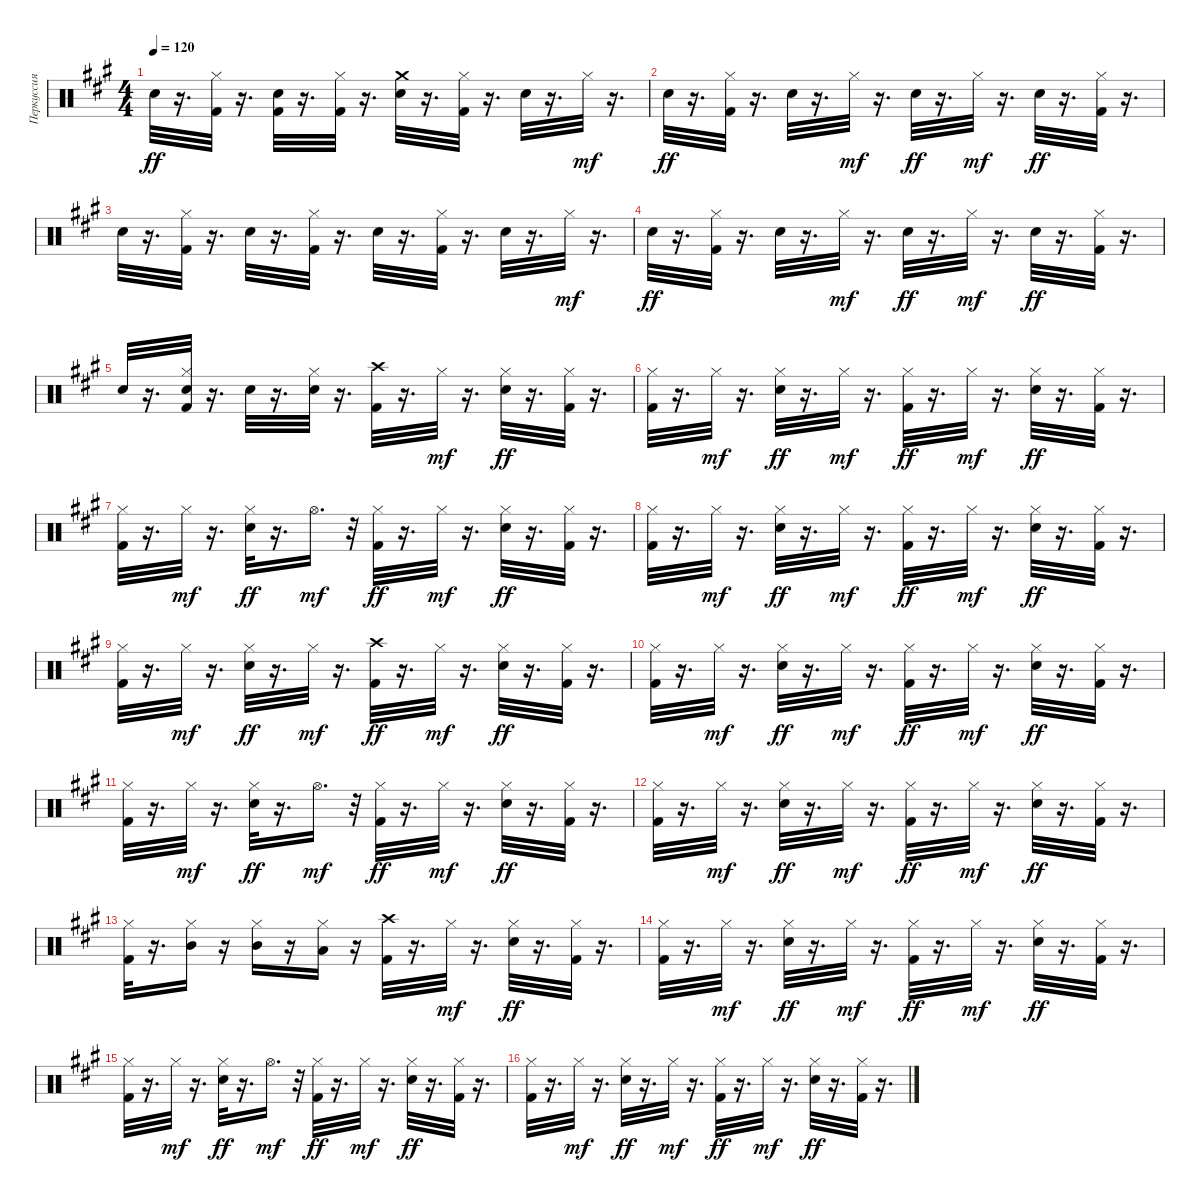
\track ("Перкуссия" "Перкуссия") {instrument percussion}
\staff {score}
\articulation defaults
\ts (4 4)
\tempo 120
\clef neutral
\ks f#minor "Snare (hit) 2".32{dy ff}
r.16{d} ("Hi-Hat (closed)" "Kick (hit) 2").32 r.16{d} ("Kick (hit) 2" "Snare (hit) 2").32 r.16{d} ("Hi-Hat (closed)" "Kick (hit) 2").32 r.16{d} ("Crash medium (hit)" "Snare (hit) 2").32 r.16{d} ("Hi-Hat (closed)" "Kick (hit) 2").32 r.16{d} "Snare (hit) 2".32 r.16{d} "Hi-Hat (closed)".32{dy mf} r.16{d} |
"Snare (hit) 2".32{dy ff} r.16{d} ("Hi-Hat (closed)" "Kick (hit) 2").32 r.16{d} "Snare (hit) 2".32 r.16{d} "Hi-Hat (closed)".32{dy mf} r.16{d} "Snare (hit) 2".32{dy ff} r.16{d} "Hi-Hat (closed)".32{dy mf} r.16{d} "Snare (hit) 2".32{dy ff} r.16{d} ("Hi-Hat (closed)" "Kick (hit) 2").32 r.16{d} |
"Snare (hit) 2".32 r.16{d} ("Hi-Hat (closed)" "Kick (hit) 2").32 r.16{d} "Snare (hit) 2".32 r.16{d} ("Hi-Hat (closed)" "Kick (hit) 2").32 r.16{d} "Snare (hit) 2".32 r.16{d} ("Hi-Hat (closed)" "Kick (hit) 2").32 r.16{d} "Snare (hit) 2".32 r.16{d} "Hi-Hat (closed)".32{dy mf} r.16{d} |
"Snare (hit) 2".32{dy ff} r.16{d} ("Hi-Hat (closed)" "Kick (hit) 2").32 r.16{d} "Snare (hit) 2".32 r.16{d} "Hi-Hat (closed)".32{dy mf} r.16{d} "Snare (hit) 2".32{dy ff} r.16{d} "Hi-Hat (closed)".32{dy mf} r.16{d} "Snare (hit) 2".32{dy ff} r.16{d} ("Hi-Hat (closed)" "Kick (hit) 2").32 r.16{d} |
"Snare (hit) 2".32 r.16{d} ("Hi-Hat (closed)" "Snare (hit) 2" "Kick (hit) 2").32 r.16{d} "Snare (hit) 2".32 r.16{d} ("Hi-Hat (closed)" "Snare (hit) 2").32 r.16{d} ("Crash high (hit)" "Kick (hit) 2").32 r.16{d} "Hi-Hat (closed)".32{dy mf} r.16{d} ("Hi-Hat (closed)" "Snare (hit) 2").32{dy ff} r.16{d} ("Hi-Hat (closed)" "Kick (hit) 2").32 r.16{d} |
("Hi-Hat (closed)" "Kick (hit) 2").32 r.16{d} "Hi-Hat (closed)".32{dy mf} r.16{d} ("Hi-Hat (closed)" "Snare (hit) 2").32{dy ff} r.16{d} "Hi-Hat (closed)".32{dy mf} r.16{d} ("Hi-Hat (closed)" "Kick (hit) 2").32{dy ff} r.16{d} "Hi-Hat (closed)".32{dy mf} r.16{d} ("Hi-Hat (closed)" "Snare (hit) 2").32{dy ff} r.16{d} ("Hi-Hat (closed)" "Kick (hit) 2").32 r.16{d} |
("Hi-Hat (closed)" "Kick (hit) 2").32 r.16{d} "Hi-Hat (closed)".32{dy mf} r.16{d} ("Hi-Hat (closed)" "Snare (hit) 2").32{dy ff} r.16{d} "Hi-Hat (open)".16{d dy mf} r.32 ("Hi-Hat (closed)" "Kick (hit) 2").32{dy ff} r.16{d} "Hi-Hat (closed)".32{dy mf} r.16{d} ("Hi-Hat (closed)" "Snare (hit) 2").32{dy ff} r.16{d} ("Hi-Hat (closed)" "Kick (hit) 2").32 r.16{d} |
("Hi-Hat (closed)" "Kick (hit) 2").32 r.16{d} "Hi-Hat (closed)".32{dy mf} r.16{d} ("Hi-Hat (closed)" "Snare (hit) 2").32{dy ff} r.16{d} "Hi-Hat (closed)".32{dy mf} r.16{d} ("Hi-Hat (closed)" "Kick (hit) 2").32{dy ff} r.16{d} "Hi-Hat (closed)".32{dy mf} r.16{d} ("Hi-Hat (closed)" "Snare (hit) 2").32{dy ff} r.16{d} ("Hi-Hat (closed)" "Kick (hit) 2").32 r.16{d} |
("Hi-Hat (closed)" "Kick (hit) 2").32 r.16{d} "Hi-Hat (closed)".32{dy mf} r.16{d} ("Hi-Hat (closed)" "Snare (hit) 2").32{dy ff} r.16{d} "Hi-Hat (closed)".32{dy mf} r.16{d} ("Crash high (hit)" "Kick (hit) 2").32{dy ff} r.16{d} "Hi-Hat (closed)".32{dy mf} r.16{d} ("Hi-Hat (closed)" "Snare (hit) 2").32{dy ff} r.16{d} ("Hi-Hat (closed)" "Kick (hit) 2").32 r.16{d} |
("Hi-Hat (closed)" "Kick (hit) 2").32 r.16{d} "Hi-Hat (closed)".32{dy mf} r.16{d} ("Hi-Hat (closed)" "Snare (hit) 2").32{dy ff} r.16{d} "Hi-Hat (closed)".32{dy mf} r.16{d} ("Hi-Hat (closed)" "Kick (hit) 2").32{dy ff} r.16{d} "Hi-Hat (closed)".32{dy mf} r.16{d} ("Hi-Hat (closed)" "Snare (hit) 2").32{dy ff} r.16{d} ("Hi-Hat (closed)" "Kick (hit) 2").32 r.16{d} |
("Hi-Hat (closed)" "Kick (hit) 2").32 r.16{d} "Hi-Hat (closed)".32{dy mf} r.16{d} ("Hi-Hat (closed)" "Snare (hit) 2").32{dy ff} r.16{d} "Hi-Hat (open)".16{d dy mf} r.32 ("Hi-Hat (closed)" "Kick (hit) 2").32{dy ff} r.16{d} "Hi-Hat (closed)".32{dy mf} r.16{d} ("Hi-Hat (closed)" "Snare (hit) 2").32{dy ff} r.16{d} ("Hi-Hat (closed)" "Kick (hit) 2").32 r.16{d} |
("Hi-Hat (closed)" "Kick (hit) 2").32 r.16{d} "Hi-Hat (closed)".32{dy mf} r.16{d} ("Hi-Hat (closed)" "Snare (hit) 2").32{dy ff} r.16{d} "Hi-Hat (closed)".32{dy mf} r.16{d} ("Hi-Hat (closed)" "Kick (hit) 2").32{dy ff} r.16{d} "Hi-Hat (closed)".32{dy mf} r.16{d} ("Hi-Hat (closed)" "Snare (hit) 2").32{dy ff} r.16{d} ("Hi-Hat (closed)" "Kick (hit) 2").32 r.16{d} |
("Hi-Hat (closed)" "Kick (hit) 2").32 r.16{d} ("Hi-Hat (closed)" "Mid Tom (hit)").16 r.16 ("Hi-Hat (closed)" "Mid Tom (hit)").16 r.16 ("Hi-Hat (closed)" "Low Tom (hit)").16 r.16 ("Crash high (hit)" "Kick (hit) 2").32 r.16{d} "Hi-Hat (closed)".32{dy mf} r.16{d} ("Hi-Hat (closed)" "Snare (hit) 2").32{dy ff} r.16{d} ("Hi-Hat (closed)" "Kick (hit) 2").32 r.16{d} |
("Hi-Hat (closed)" "Kick (hit) 2").32 r.16{d} "Hi-Hat (closed)".32{dy mf} r.16{d} ("Hi-Hat (closed)" "Snare (hit) 2").32{dy ff} r.16{d} "Hi-Hat (closed)".32{dy mf} r.16{d} ("Hi-Hat (closed)" "Kick (hit) 2").32{dy ff} r.16{d} "Hi-Hat (closed)".32{dy mf} r.16{d} ("Hi-Hat (closed)" "Snare (hit) 2").32{dy ff} r.16{d} ("Hi-Hat (closed)" "Kick (hit) 2").32 r.16{d} |
("Hi-Hat (closed)" "Kick (hit) 2").32 r.16{d} "Hi-Hat (closed)".32{dy mf} r.16{d} ("Hi-Hat (closed)" "Snare (hit) 2").32{dy ff} r.16{d} "Hi-Hat (open)".16{d dy mf} r.32 ("Hi-Hat (closed)" "Kick (hit) 2").32{dy ff} r.16{d} "Hi-Hat (closed)".32{dy mf} r.16{d} ("Hi-Hat (closed)" "Snare (hit) 2").32{dy ff} r.16{d} ("Hi-Hat (closed)" "Kick (hit) 2").32 r.16{d} |
("Hi-Hat (closed)" "Kick (hit) 2").32 r.16{d} "Hi-Hat (closed)".32{dy mf} r.16{d} ("Hi-Hat (closed)" "Snare (hit) 2").32{dy ff} r.16{d} "Hi-Hat (closed)".32{dy mf} r.16{d} ("Hi-Hat (closed)" "Kick (hit) 2").32{dy ff} r.16{d} "Hi-Hat (closed)".32{dy mf} r.16{d} ("Hi-Hat (closed)" "Snare (hit) 2").32{dy ff} r.16{d} ("Hi-Hat (closed)" "Kick (hit) 2").32 r.16{d}
